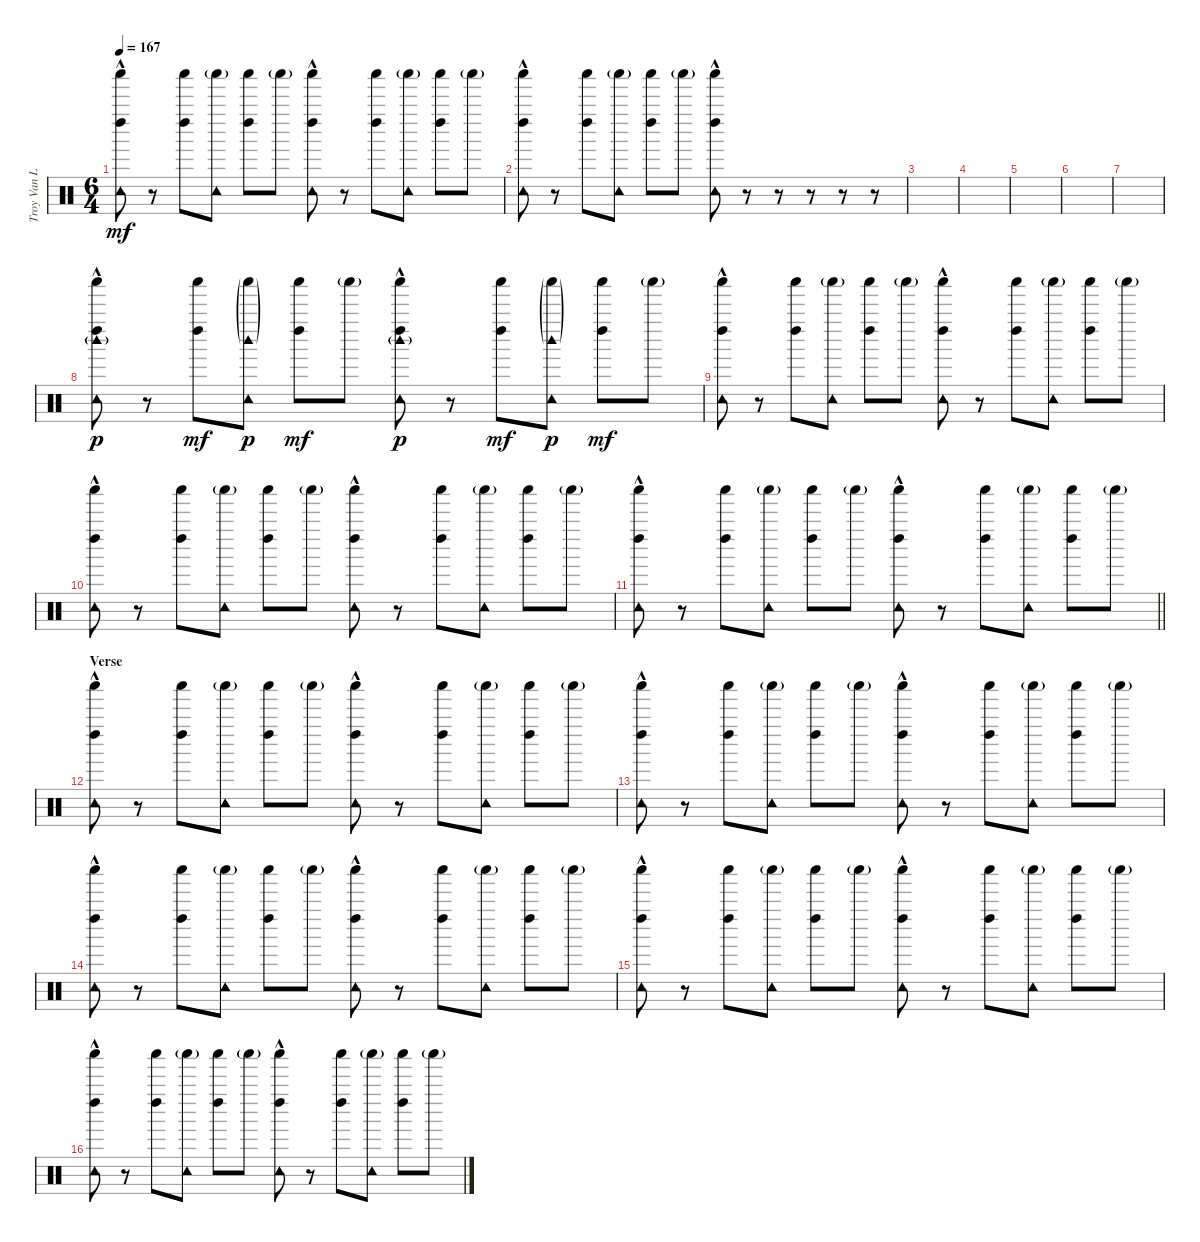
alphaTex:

\track ("Troy Van Leeuwen (live)" "Troy Van L") {instrument percussion}
\staff {score}
\articulation defaults
\ts (6 4)
\tempo 167
\clef neutral
\ks c
("Tambourine (hit)" "Left Maraca (hit)" "Shaker (hit)"{hac}).8{dy mf} r.8 ("Left Maraca (hit)" "Shaker (hit)").8 ("Tambourine (hit)" "Shaker (hit)"{g}).8 ("Left Maraca (hit)" "Shaker (hit)").8 "Shaker (hit)"{g}.8 ("Tambourine (hit)" "Left Maraca (hit)" "Shaker (hit)"{hac}).8 r.8 ("Left Maraca (hit)" "Shaker (hit)").8 ("Tambourine (hit)" "Shaker (hit)"{g}).8 ("Left Maraca (hit)" "Shaker (hit)").8 "Shaker (hit)"{g}.8 |
("Tambourine (hit)" "Left Maraca (hit)" "Shaker (hit)"{hac}).8 r.8 ("Left Maraca (hit)" "Shaker (hit)").8 ("Tambourine (hit)" "Shaker (hit)"{g}).8 ("Left Maraca (hit)" "Shaker (hit)").8 "Shaker (hit)"{g}.8 ("Tambourine (hit)" "Left Maraca (hit)" "Shaker (hit)"{hac}).8 r.8 r.8 r.8 r.8 r.8 |
|
|
|
|
|
("Tambourine (hit)" "Left Maraca (hit)" "Shaker (hit)"{hac} "Woodblock high (hit)"{g}).8{dy p} r.8 ("Left Maraca (hit)" "Shaker (hit)").8{dy mf} ("Tambourine (hit)" "Shaker (hit)"{g} "Woodblock high (hit)"{g}).8{dy p} ("Left Maraca (hit)" "Shaker (hit)").8{dy mf} "Shaker (hit)"{g}.8 ("Tambourine (hit)" "Left Maraca (hit)" "Shaker (hit)"{hac} "Woodblock high (hit)"{g}).8{dy p} r.8 ("Left Maraca (hit)" "Shaker (hit)").8{dy mf} ("Tambourine (hit)" "Shaker (hit)"{g} "Woodblock high (hit)"{g}).8{dy p} ("Left Maraca (hit)" "Shaker (hit)").8{dy mf} "Shaker (hit)"{g}.8 |
("Tambourine (hit)" "Left Maraca (hit)" "Shaker (hit)"{hac}).8 r.8 ("Left Maraca (hit)" "Shaker (hit)").8 ("Tambourine (hit)" "Shaker (hit)"{g}).8 ("Left Maraca (hit)" "Shaker (hit)").8 "Shaker (hit)"{g}.8 ("Tambourine (hit)" "Left Maraca (hit)" "Shaker (hit)"{hac}).8 r.8 ("Left Maraca (hit)" "Shaker (hit)").8 ("Tambourine (hit)" "Shaker (hit)"{g}).8 ("Left Maraca (hit)" "Shaker (hit)").8 "Shaker (hit)"{g}.8 |
("Tambourine (hit)" "Left Maraca (hit)" "Shaker (hit)"{hac}).8 r.8 ("Left Maraca (hit)" "Shaker (hit)").8 ("Tambourine (hit)" "Shaker (hit)"{g}).8 ("Left Maraca (hit)" "Shaker (hit)").8 "Shaker (hit)"{g}.8 ("Tambourine (hit)" "Left Maraca (hit)" "Shaker (hit)"{hac}).8 r.8 ("Left Maraca (hit)" "Shaker (hit)").8 ("Tambourine (hit)" "Shaker (hit)"{g}).8 ("Left Maraca (hit)" "Shaker (hit)").8 "Shaker (hit)"{g}.8 |
\barLineRight lightlight
("Tambourine (hit)" "Left Maraca (hit)" "Shaker (hit)"{hac}).8 r.8 ("Left Maraca (hit)" "Shaker (hit)").8 ("Tambourine (hit)" "Shaker (hit)"{g}).8 ("Left Maraca (hit)" "Shaker (hit)").8 "Shaker (hit)"{g}.8 ("Tambourine (hit)" "Left Maraca (hit)" "Shaker (hit)"{hac}).8 r.8 ("Left Maraca (hit)" "Shaker (hit)").8 ("Tambourine (hit)" "Shaker (hit)"{g}).8 ("Left Maraca (hit)" "Shaker (hit)").8 "Shaker (hit)"{g}.8 |
\section ("" "Verse")
("Tambourine (hit)" "Left Maraca (hit)" "Shaker (hit)"{hac}).8 r.8 ("Left Maraca (hit)" "Shaker (hit)").8 ("Tambourine (hit)" "Shaker (hit)"{g}).8 ("Left Maraca (hit)" "Shaker (hit)").8 "Shaker (hit)"{g}.8 ("Tambourine (hit)" "Left Maraca (hit)" "Shaker (hit)"{hac}).8 r.8 ("Left Maraca (hit)" "Shaker (hit)").8 ("Tambourine (hit)" "Shaker (hit)"{g}).8 ("Left Maraca (hit)" "Shaker (hit)").8 "Shaker (hit)"{g}.8 |
("Tambourine (hit)" "Left Maraca (hit)" "Shaker (hit)"{hac}).8 r.8 ("Left Maraca (hit)" "Shaker (hit)").8 ("Tambourine (hit)" "Shaker (hit)"{g}).8 ("Left Maraca (hit)" "Shaker (hit)").8 "Shaker (hit)"{g}.8 ("Tambourine (hit)" "Left Maraca (hit)" "Shaker (hit)"{hac}).8 r.8 ("Left Maraca (hit)" "Shaker (hit)").8 ("Tambourine (hit)" "Shaker (hit)"{g}).8 ("Left Maraca (hit)" "Shaker (hit)").8 "Shaker (hit)"{g}.8 |
("Tambourine (hit)" "Left Maraca (hit)" "Shaker (hit)"{hac}).8 r.8 ("Left Maraca (hit)" "Shaker (hit)").8 ("Tambourine (hit)" "Shaker (hit)"{g}).8 ("Left Maraca (hit)" "Shaker (hit)").8 "Shaker (hit)"{g}.8 ("Tambourine (hit)" "Left Maraca (hit)" "Shaker (hit)"{hac}).8 r.8 ("Left Maraca (hit)" "Shaker (hit)").8 ("Tambourine (hit)" "Shaker (hit)"{g}).8 ("Left Maraca (hit)" "Shaker (hit)").8 "Shaker (hit)"{g}.8 |
("Tambourine (hit)" "Left Maraca (hit)" "Shaker (hit)"{hac}).8 r.8 ("Left Maraca (hit)" "Shaker (hit)").8 ("Tambourine (hit)" "Shaker (hit)"{g}).8 ("Left Maraca (hit)" "Shaker (hit)").8 "Shaker (hit)"{g}.8 ("Tambourine (hit)" "Left Maraca (hit)" "Shaker (hit)"{hac}).8 r.8 ("Left Maraca (hit)" "Shaker (hit)").8 ("Tambourine (hit)" "Shaker (hit)"{g}).8 ("Left Maraca (hit)" "Shaker (hit)").8 "Shaker (hit)"{g}.8 |
("Tambourine (hit)" "Left Maraca (hit)" "Shaker (hit)"{hac}).8 r.8 ("Left Maraca (hit)" "Shaker (hit)").8 ("Tambourine (hit)" "Shaker (hit)"{g}).8 ("Left Maraca (hit)" "Shaker (hit)").8 "Shaker (hit)"{g}.8 ("Tambourine (hit)" "Left Maraca (hit)" "Shaker (hit)"{hac}).8 r.8 ("Left Maraca (hit)" "Shaker (hit)").8 ("Tambourine (hit)" "Shaker (hit)"{g}).8 ("Left Maraca (hit)" "Shaker (hit)").8 "Shaker (hit)"{g}.8
